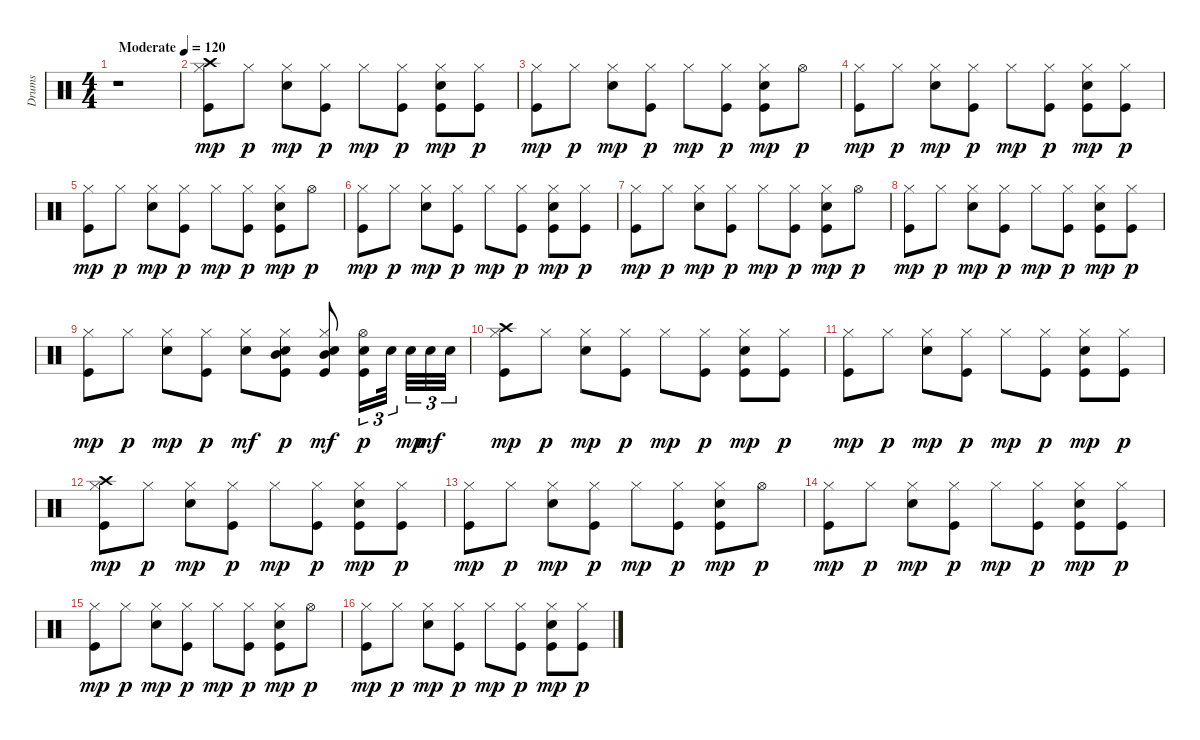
\track ("Drums" "Drums") {instrument percussion}
\staff {score}
\articulation defaults
\ts (4 4)
\tempo (120 "Moderate")
\tempo 80
\tempo (120 "Moderate")
\clef neutral
\ks c
r.1{dy mp} |
("Kick (hit)" "Hi-Hat (closed)" "Crash high (hit)").8 "Hi-Hat (closed)".8{dy p} ("Electric Snare (hit)" "Hi-Hat (closed)").8{dy mp} ("Kick (hit)" "Hi-Hat (closed)").8{dy p} "Hi-Hat (closed)".8{dy mp} ("Kick (hit)" "Hi-Hat (closed)").8{dy p} ("Kick (hit)" "Electric Snare (hit)" "Hi-Hat (closed)").8{dy mp} ("Kick (hit)" "Hi-Hat (closed)").8{dy p} |
("Kick (hit)" "Hi-Hat (closed)").8{dy mp} "Hi-Hat (closed)".8{dy p} ("Electric Snare (hit)" "Hi-Hat (closed)").8{dy mp} ("Kick (hit)" "Hi-Hat (closed)").8{dy p} "Hi-Hat (closed)".8{dy mp} ("Kick (hit)" "Hi-Hat (closed)").8{dy p} ("Kick (hit)" "Electric Snare (hit)" "Hi-Hat (closed)").8{dy mp} "Hi-Hat (open)".8{dy p} |
("Kick (hit)" "Hi-Hat (closed)").8{dy mp} "Hi-Hat (closed)".8{dy p} ("Electric Snare (hit)" "Hi-Hat (closed)").8{dy mp} ("Kick (hit)" "Hi-Hat (closed)").8{dy p} "Hi-Hat (closed)".8{dy mp} ("Kick (hit)" "Hi-Hat (closed)").8{dy p} ("Kick (hit)" "Electric Snare (hit)" "Hi-Hat (closed)").8{dy mp} ("Kick (hit)" "Hi-Hat (closed)").8{dy p} |
("Kick (hit)" "Hi-Hat (closed)").8{dy mp} "Hi-Hat (closed)".8{dy p} ("Electric Snare (hit)" "Hi-Hat (closed)").8{dy mp} ("Kick (hit)" "Hi-Hat (closed)").8{dy p} "Hi-Hat (closed)".8{dy mp} ("Kick (hit)" "Hi-Hat (closed)").8{dy p} ("Kick (hit)" "Electric Snare (hit)" "Hi-Hat (closed)").8{dy mp} "Hi-Hat (open)".8{dy p} |
("Kick (hit)" "Hi-Hat (closed)").8{dy mp} "Hi-Hat (closed)".8{dy p} ("Electric Snare (hit)" "Hi-Hat (closed)").8{dy mp} ("Kick (hit)" "Hi-Hat (closed)").8{dy p} "Hi-Hat (closed)".8{dy mp} ("Kick (hit)" "Hi-Hat (closed)").8{dy p} ("Kick (hit)" "Electric Snare (hit)" "Hi-Hat (closed)").8{dy mp} ("Kick (hit)" "Hi-Hat (closed)").8{dy p} |
("Kick (hit)" "Hi-Hat (closed)").8{dy mp} "Hi-Hat (closed)".8{dy p} ("Electric Snare (hit)" "Hi-Hat (closed)").8{dy mp} ("Kick (hit)" "Hi-Hat (closed)").8{dy p} "Hi-Hat (closed)".8{dy mp} ("Kick (hit)" "Hi-Hat (closed)").8{dy p} ("Kick (hit)" "Electric Snare (hit)" "Hi-Hat (closed)").8{dy mp} "Hi-Hat (open)".8{dy p} |
("Kick (hit)" "Hi-Hat (closed)").8{dy mp} "Hi-Hat (closed)".8{dy p} ("Electric Snare (hit)" "Hi-Hat (closed)").8{dy mp} ("Kick (hit)" "Hi-Hat (closed)").8{dy p} "Hi-Hat (closed)".8{dy mp} ("Kick (hit)" "Hi-Hat (closed)").8{dy p} ("Kick (hit)" "Electric Snare (hit)" "Hi-Hat (closed)").8{dy mp} ("Kick (hit)" "Hi-Hat (closed)").8{dy p} |
("Kick (hit)" "Hi-Hat (closed)").8{dy mp} "Hi-Hat (closed)".8{dy p} ("Electric Snare (hit)" "Hi-Hat (closed)").8{dy mp} ("Kick (hit)" "Hi-Hat (closed)").8{dy p} ("Hi-Hat (closed)" "Electric Snare (hit)").8{dy mf} ("Kick (hit)" "Electric Snare (hit)" "Hi-Hat (closed)" "Mid Tom (hit)").8{dy p} ("Kick (hit)" "Electric Snare (hit)" "Hi-Hat (closed)" "Mid Tom (hit)").8{dy mf} ("Kick (hit)" "Electric Snare (hit)" "Hi-Hat (open)").16{tu (3 2) dy p} "Electric Snare (hit)".32{tu (3 2) beam splitsecondary} "Electric Snare (hit)".32{tu (3 2) dy mp} "Electric Snare (hit)".32{tu (3 2) dy mf} "Electric Snare (hit)".32{tu (3 2)} |
("Kick (hit)" "Hi-Hat (closed)" "Crash high (hit)").8{dy mp} "Hi-Hat (closed)".8{dy p} ("Electric Snare (hit)" "Hi-Hat (closed)").8{dy mp} ("Kick (hit)" "Hi-Hat (closed)").8{dy p} "Hi-Hat (closed)".8{dy mp} ("Kick (hit)" "Hi-Hat (closed)").8{dy p} ("Kick (hit)" "Electric Snare (hit)" "Hi-Hat (closed)").8{dy mp} ("Kick (hit)" "Hi-Hat (closed)").8{dy p} |
("Kick (hit)" "Hi-Hat (closed)").8{dy mp} "Hi-Hat (closed)".8{dy p} ("Electric Snare (hit)" "Hi-Hat (closed)").8{dy mp} ("Kick (hit)" "Hi-Hat (closed)").8{dy p} "Hi-Hat (closed)".8{dy mp} ("Kick (hit)" "Hi-Hat (closed)").8{dy p} ("Kick (hit)" "Electric Snare (hit)" "Hi-Hat (closed)").8{dy mp} ("Kick (hit)" "Hi-Hat (closed)").8{dy p} |
("Kick (hit)" "Hi-Hat (closed)" "Crash high (hit)").8{dy mp} "Hi-Hat (closed)".8{dy p} ("Electric Snare (hit)" "Hi-Hat (closed)").8{dy mp} ("Kick (hit)" "Hi-Hat (closed)").8{dy p} "Hi-Hat (closed)".8{dy mp} ("Kick (hit)" "Hi-Hat (closed)").8{dy p} ("Kick (hit)" "Electric Snare (hit)" "Hi-Hat (closed)").8{dy mp} ("Kick (hit)" "Hi-Hat (closed)").8{dy p} |
("Kick (hit)" "Hi-Hat (closed)").8{dy mp} "Hi-Hat (closed)".8{dy p} ("Electric Snare (hit)" "Hi-Hat (closed)").8{dy mp} ("Kick (hit)" "Hi-Hat (closed)").8{dy p} "Hi-Hat (closed)".8{dy mp} ("Kick (hit)" "Hi-Hat (closed)").8{dy p} ("Kick (hit)" "Electric Snare (hit)" "Hi-Hat (closed)").8{dy mp} "Hi-Hat (open)".8{dy p} |
("Kick (hit)" "Hi-Hat (closed)").8{dy mp} "Hi-Hat (closed)".8{dy p} ("Electric Snare (hit)" "Hi-Hat (closed)").8{dy mp} ("Kick (hit)" "Hi-Hat (closed)").8{dy p} "Hi-Hat (closed)".8{dy mp} ("Kick (hit)" "Hi-Hat (closed)").8{dy p} ("Kick (hit)" "Electric Snare (hit)" "Hi-Hat (closed)").8{dy mp} ("Kick (hit)" "Hi-Hat (closed)").8{dy p} |
("Kick (hit)" "Hi-Hat (closed)").8{dy mp} "Hi-Hat (closed)".8{dy p} ("Electric Snare (hit)" "Hi-Hat (closed)").8{dy mp} ("Kick (hit)" "Hi-Hat (closed)").8{dy p} "Hi-Hat (closed)".8{dy mp} ("Kick (hit)" "Hi-Hat (closed)").8{dy p} ("Kick (hit)" "Electric Snare (hit)" "Hi-Hat (closed)").8{dy mp} "Hi-Hat (open)".8{dy p} |
("Kick (hit)" "Hi-Hat (closed)").8{dy mp} "Hi-Hat (closed)".8{dy p} ("Electric Snare (hit)" "Hi-Hat (closed)").8{dy mp} ("Kick (hit)" "Hi-Hat (closed)").8{dy p} "Hi-Hat (closed)".8{dy mp} ("Kick (hit)" "Hi-Hat (closed)").8{dy p} ("Kick (hit)" "Electric Snare (hit)" "Hi-Hat (closed)").8{dy mp} ("Kick (hit)" "Hi-Hat (closed)").8{dy p}
